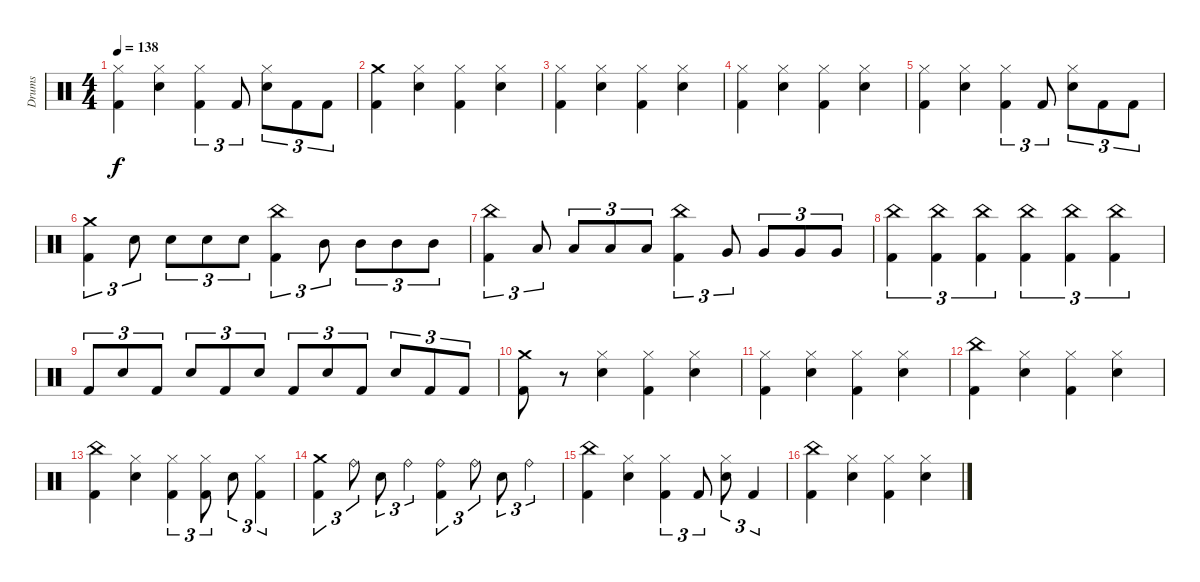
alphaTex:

\track ("Drums" "Drums") {instrument percussion}
\staff {score}
\articulation defaults
\ts (4 4)
\tempo 138
\clef neutral
\ks c
("Hi-Hat (closed)" "Kick (hit) 2").4{dy f} ("Hi-Hat (closed)" "Snare (hit) 2").4 ("Hi-Hat (closed)" "Kick (hit) 2").4{tu (3 2)} "Kick (hit) 2".8{tu (3 2)} ("Hi-Hat (closed)" "Snare (hit) 2").8{tu (3 2)} "Kick (hit) 2".8{tu (3 2)} "Kick (hit) 2".8{tu (3 2)} |
("Kick (hit) 2" "Crash medium (hit)").4 ("Hi-Hat (closed)" "Snare (hit) 2").4 ("Hi-Hat (closed)" "Kick (hit) 2").4 ("Hi-Hat (closed)" "Snare (hit) 2").4 |
("Hi-Hat (closed)" "Kick (hit) 2").4 ("Hi-Hat (closed)" "Snare (hit) 2").4 ("Hi-Hat (closed)" "Kick (hit) 2").4 ("Hi-Hat (closed)" "Snare (hit) 2").4 |
("Hi-Hat (closed)" "Kick (hit) 2").4 ("Hi-Hat (closed)" "Snare (hit) 2").4 ("Hi-Hat (closed)" "Kick (hit) 2").4 ("Hi-Hat (closed)" "Snare (hit) 2").4 |
("Hi-Hat (closed)" "Kick (hit) 2").4 ("Hi-Hat (closed)" "Snare (hit) 2").4 ("Hi-Hat (closed)" "Kick (hit) 2").4{tu (3 2)} "Kick (hit) 2".8{tu (3 2)} ("Hi-Hat (closed)" "Snare (hit) 2").8{tu (3 2)} "Kick (hit) 2".8{tu (3 2)} "Kick (hit) 2".8{tu (3 2)} |
("Kick (hit) 2" "Crash medium (hit)").4{tu (3 2)} "Snare (hit) 2".8{tu (3 2)} "Snare (hit) 2".8{tu (3 2)} "Snare (hit) 2".8{tu (3 2)} "Snare (hit) 2".8{tu (3 2)} ("Kick (hit) 2" "China (hit)").4{tu (3 2)} "Mid Tom (hit)".8{tu (3 2)} "Mid Tom (hit)".8{tu (3 2)} "Mid Tom (hit)".8{tu (3 2)} "Mid Tom (hit)".8{tu (3 2)} |
("Kick (hit) 2" "China (hit)").4{tu (3 2)} "Low Tom (hit)".8{tu (3 2)} "Low Tom (hit)".8{tu (3 2)} "Low Tom (hit)".8{tu (3 2)} "Low Tom (hit)".8{tu (3 2)} ("Kick (hit) 2" "China (hit)").4{tu (3 2)} "Very Low Tom (hit)".8{tu (3 2)} "Very Low Tom (hit)".8{tu (3 2)} "Very Low Tom (hit)".8{tu (3 2)} "Very Low Tom (hit)".8{tu (3 2)} |
("China (hit)" "Kick (hit) 2").4{tu (3 2)} ("China (hit)" "Kick (hit) 2").4{tu (3 2)} ("China (hit)" "Kick (hit) 2").4{tu (3 2)} ("China (hit)" "Kick (hit) 2").4{tu (3 2)} ("China (hit)" "Kick (hit) 2").4{tu (3 2)} ("China (hit)" "Kick (hit) 2").4{tu (3 2)} |
"Kick (hit) 2".8{tu (3 2)} "Snare (hit) 2".8{tu (3 2)} "Kick (hit) 2".8{tu (3 2)} "Snare (hit) 2".8{tu (3 2)} "Kick (hit) 2".8{tu (3 2)} "Snare (hit) 2".8{tu (3 2)} "Kick (hit) 2".8{tu (3 2)} "Snare (hit) 2".8{tu (3 2)} "Kick (hit) 2".8{tu (3 2)} "Snare (hit) 2".8{tu (3 2)} "Kick (hit) 2".8{tu (3 2)} "Kick (hit) 2".8{tu (3 2)} |
("Crash medium (hit)" "Kick (hit) 2").8 r.8 ("Hi-Hat (closed)" "Snare (hit) 2").4 ("Hi-Hat (closed)" "Kick (hit) 2").4 ("Hi-Hat (closed)" "Snare (hit) 2").4 |
("Hi-Hat (closed)" "Kick (hit) 2").4 ("Hi-Hat (closed)" "Snare (hit) 2").4 ("Hi-Hat (closed)" "Kick (hit) 2").4 ("Hi-Hat (closed)" "Snare (hit) 2").4 |
("Kick (hit) 2" "China (hit)").4 ("Hi-Hat (closed)" "Snare (hit) 2").4 ("Hi-Hat (closed)" "Kick (hit) 2").4 ("Hi-Hat (closed)" "Snare (hit) 2").4 |
("Kick (hit) 2" "China (hit)").4 ("Hi-Hat (closed)" "Snare (hit) 2").4 ("Hi-Hat (closed)" "Kick (hit) 2").4{tu (3 2)} ("Hi-Hat (closed)" "Kick (hit) 2").8{tu (3 2)} "Snare (hit) 2".8{tu (3 2)} ("Hi-Hat (closed)" "Kick (hit) 2").4{tu (3 2)} |
("Kick (hit) 2" "Crash medium (hit)").4{tu (3 2)} "Ride (bell)".8{tu (3 2)} "Snare (hit) 2".8{tu (3 2)} "Ride (bell)".4{tu (3 2)} ("Kick (hit) 2" "Ride (bell)").4{tu (3 2)} "Ride (bell)".8{tu (3 2)} "Snare (hit) 2".8{tu (3 2)} "Ride (bell)".4{tu (3 2)} |
("Kick (hit) 2" "China (hit)").4 ("Hi-Hat (closed)" "Snare (hit) 2").4 ("Hi-Hat (closed)" "Kick (hit) 2").4{tu (3 2)} "Kick (hit) 2".8{tu (3 2)} ("Hi-Hat (closed)" "Snare (hit) 2").8{tu (3 2)} "Kick (hit) 2".4{tu (3 2)} |
("Kick (hit) 2" "China (hit)").4 ("Hi-Hat (closed)" "Snare (hit) 2").4 ("Hi-Hat (closed)" "Kick (hit) 2").4 ("Hi-Hat (closed)" "Snare (hit) 2").4
